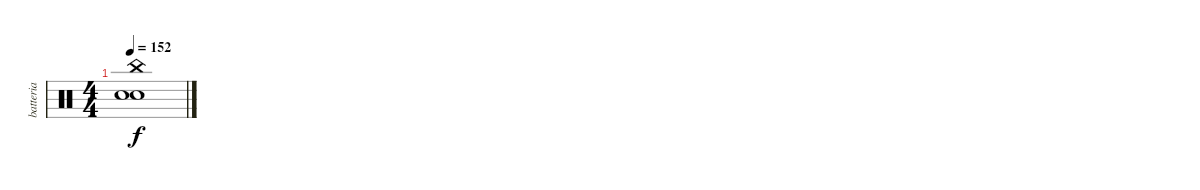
\track ("batteria" "batteria") {instrument percussion}
\staff {score}
\articulation defaults
\ts (4 4)
\tempo 152
\clef neutral
\ks c
("Snare (hit)"{t} "China (hit)"{t} "Snare (hit)"{t}).1{dy f}
